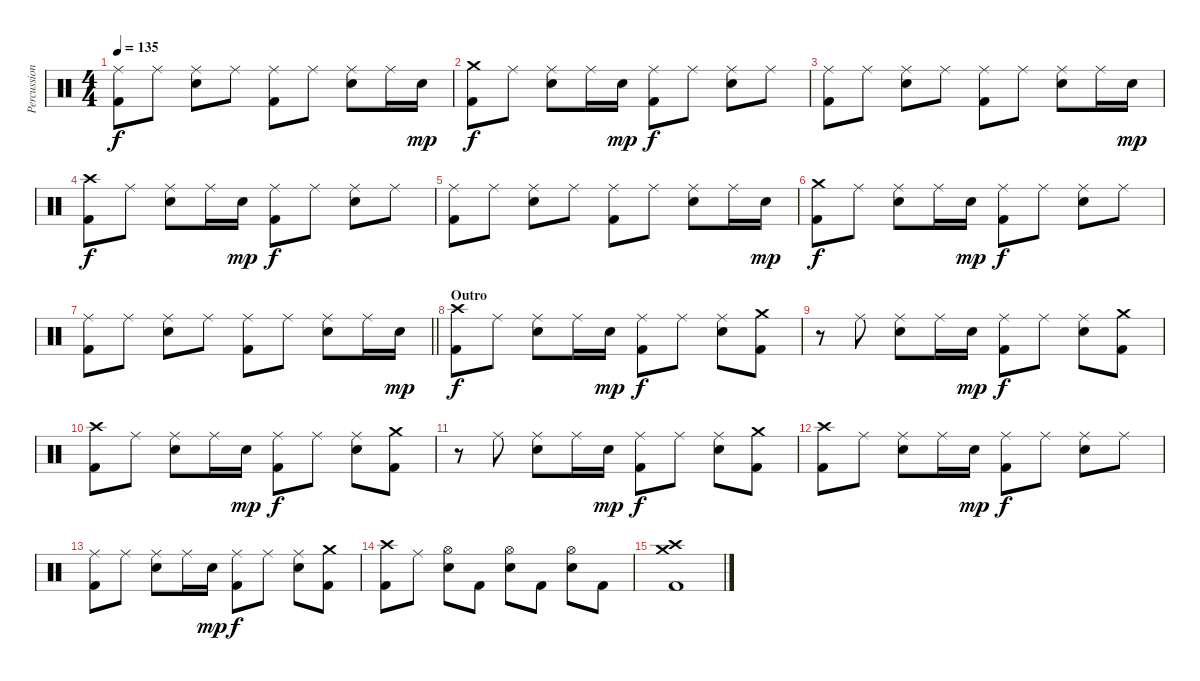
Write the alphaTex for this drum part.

\track ("Percussion" "Percussion") {instrument percussion}
\staff {score}
\articulation defaults
\ts (4 4)
\tempo 135
\clef neutral
\ks c
("Ride (middle)" "Kick (hit) 2").8{dy f} "Ride (middle)".8 ("Ride (middle)" "Snare (hit) 2").8 "Ride (middle)".8 ("Ride (middle)" "Kick (hit) 2").8 "Ride (middle)".8 ("Ride (middle)" "Snare (hit) 2").8 "Ride (middle)".16 "Snare (hit) 2".16{dy mp} |
("Crash medium (hit)" "Kick (hit) 2").8{dy f} "Ride (middle)".8 ("Ride (middle)" "Snare (hit) 2").8 "Ride (middle)".16 "Snare (hit) 2".16{dy mp} ("Ride (middle)" "Kick (hit) 2").8{dy f} "Ride (middle)".8 ("Ride (middle)" "Snare (hit) 2").8 "Ride (middle)".8 |
("Ride (middle)" "Kick (hit) 2").8 "Ride (middle)".8 ("Ride (middle)" "Snare (hit) 2").8 "Ride (middle)".8 ("Ride (middle)" "Kick (hit) 2").8 "Ride (middle)".8 ("Ride (middle)" "Snare (hit) 2").8 "Ride (middle)".16 "Snare (hit) 2".16{dy mp} |
("Crash high (hit)" "Kick (hit) 2").8{dy f} "Ride (middle)".8 ("Ride (middle)" "Snare (hit) 2").8 "Ride (middle)".16 "Snare (hit) 2".16{dy mp} ("Ride (middle)" "Kick (hit) 2").8{dy f} "Ride (middle)".8 ("Ride (middle)" "Snare (hit) 2").8 "Ride (middle)".8 |
("Ride (middle)" "Kick (hit) 2").8 "Ride (middle)".8 ("Ride (middle)" "Snare (hit) 2").8 "Ride (middle)".8 ("Ride (middle)" "Kick (hit) 2").8 "Ride (middle)".8 ("Ride (middle)" "Snare (hit) 2").8 "Ride (middle)".16 "Snare (hit) 2".16{dy mp} |
("Crash medium (hit)" "Kick (hit) 2").8{dy f} "Ride (middle)".8 ("Ride (middle)" "Snare (hit) 2").8 "Ride (middle)".16 "Snare (hit) 2".16{dy mp} ("Ride (middle)" "Kick (hit) 2").8{dy f} "Ride (middle)".8 ("Ride (middle)" "Snare (hit) 2").8 "Ride (middle)".8 |
\barLineRight lightlight
("Ride (middle)" "Kick (hit) 2").8 "Ride (middle)".8 ("Ride (middle)" "Snare (hit) 2").8 "Ride (middle)".8 ("Ride (middle)" "Kick (hit) 2").8 "Ride (middle)".8 ("Ride (middle)" "Snare (hit) 2").8 "Ride (middle)".16 "Snare (hit) 2".16{dy mp} |
\section ("" "Outro")
("Crash high (hit)" "Kick (hit) 2").8{dy f} "Ride (middle)".8 ("Ride (middle)" "Snare (hit) 2").8 "Ride (middle)".16 "Snare (hit) 2".16{dy mp} ("Ride (middle)" "Kick (hit) 2").8{dy f} "Ride (middle)".8 ("Ride (middle)" "Snare (hit) 2").8 ("Crash medium (hit)" "Kick (hit) 2").8 |
r.8 "Ride (middle)".8 ("Ride (middle)" "Snare (hit) 2").8 "Ride (middle)".16 "Snare (hit) 2".16{dy mp} ("Ride (middle)" "Kick (hit) 2").8{dy f} "Ride (middle)".8 ("Ride (middle)" "Snare (hit) 2").8 ("Crash medium (hit)" "Kick (hit) 2").8 |
("Crash high (hit)" "Kick (hit) 2").8 "Ride (middle)".8 ("Ride (middle)" "Snare (hit) 2").8 "Ride (middle)".16 "Snare (hit) 2".16{dy mp} ("Ride (middle)" "Kick (hit) 2").8{dy f} "Ride (middle)".8 ("Ride (middle)" "Snare (hit) 2").8 ("Crash medium (hit)" "Kick (hit) 2").8 |
r.8 "Ride (middle)".8 ("Ride (middle)" "Snare (hit) 2").8 "Ride (middle)".16 "Snare (hit) 2".16{dy mp} ("Ride (middle)" "Kick (hit) 2").8{dy f} "Ride (middle)".8 ("Ride (middle)" "Snare (hit) 2").8 ("Crash medium (hit)" "Kick (hit) 2").8 |
("Crash high (hit)" "Kick (hit) 2").8 "Ride (middle)".8 ("Ride (middle)" "Snare (hit) 2").8 "Ride (middle)".16 "Snare (hit) 2".16{dy mp} ("Ride (middle)" "Kick (hit) 2").8{dy f} "Ride (middle)".8 ("Ride (middle)" "Snare (hit) 2").8 "Ride (middle)".8 |
("Ride (middle)" "Kick (hit) 2").8 "Ride (middle)".8 ("Ride (middle)" "Snare (hit) 2").8 "Ride (middle)".16 "Snare (hit) 2".16{dy mp} ("Ride (middle)" "Kick (hit) 2").8{dy f} "Ride (middle)".8 ("Ride (middle)" "Snare (hit) 2").8 ("Crash medium (hit)" "Kick (hit) 2").8 |
("Crash high (hit)" "Kick (hit) 2").8 "Ride (middle)".8 ("Hi-Hat (open)" "Snare (hit) 2").8 "Kick (hit) 2".8 ("Hi-Hat (open)" "Snare (hit) 2").8 "Kick (hit) 2".8 ("Hi-Hat (open)" "Snare (hit) 2").8 "Kick (hit) 2".8 |
("Crash high (hit)" "Crash medium (hit)" "Kick (hit) 2").1
